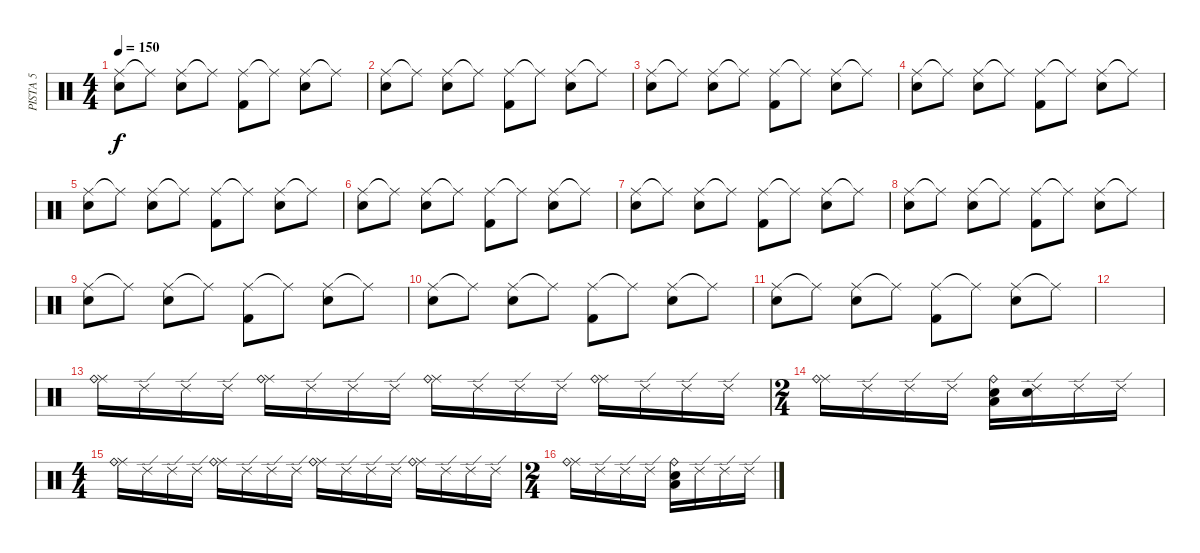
\track ("PISTA 5" "PISTA 5") {instrument percussion}
\staff {score}
\articulation defaults
\ts (4 4)
\tempo 150
\clef neutral
\ks c
("Ride (middle)" "Snare (hit)").8{dy f} "Ride (middle)"{t}.8 ("Ride (middle)" "Electric Snare (hit)").8 "Ride (middle)"{t}.8 ("Ride (middle)" "Kick (hit) 2").8 "Ride (middle)"{t}.8 ("Ride (middle)" "Electric Snare (hit)").8 "Ride (middle)"{t}.8 |
("Ride (middle)" "Snare (hit)").8 "Ride (middle)"{t}.8 ("Ride (middle)" "Electric Snare (hit)").8 "Ride (middle)"{t}.8 ("Ride (middle)" "Kick (hit) 2").8 "Ride (middle)"{t}.8 ("Ride (middle)" "Electric Snare (hit)").8 "Ride (middle)"{t}.8 |
("Ride (middle)" "Snare (hit)").8 "Ride (middle)"{t}.8 ("Ride (middle)" "Electric Snare (hit)").8 "Ride (middle)"{t}.8 ("Ride (middle)" "Kick (hit) 2").8 "Ride (middle)"{t}.8 ("Ride (middle)" "Electric Snare (hit)").8 "Ride (middle)"{t}.8 |
("Ride (middle)" "Snare (hit)").8 "Ride (middle)"{t}.8 ("Ride (middle)" "Electric Snare (hit)").8 "Ride (middle)"{t}.8 ("Ride (middle)" "Kick (hit) 2").8 "Ride (middle)"{t}.8 ("Ride (middle)" "Electric Snare (hit)").8 "Ride (middle)"{t}.8 |
("Ride (middle)" "Snare (hit)").8 "Ride (middle)"{t}.8 ("Ride (middle)" "Electric Snare (hit)").8 "Ride (middle)"{t}.8 ("Ride (middle)" "Kick (hit) 2").8 "Ride (middle)"{t}.8 ("Ride (middle)" "Electric Snare (hit)").8 "Ride (middle)"{t}.8 |
("Ride (middle)" "Snare (hit)").8 "Ride (middle)"{t}.8 ("Ride (middle)" "Electric Snare (hit)").8 "Ride (middle)"{t}.8 ("Ride (middle)" "Kick (hit) 2").8 "Ride (middle)"{t}.8 ("Ride (middle)" "Electric Snare (hit)").8 "Ride (middle)"{t}.8 |
("Ride (middle)" "Snare (hit)").8 "Ride (middle)"{t}.8 ("Ride (middle)" "Electric Snare (hit)").8 "Ride (middle)"{t}.8 ("Ride (middle)" "Kick (hit) 2").8 "Ride (middle)"{t}.8 ("Ride (middle)" "Electric Snare (hit)").8 "Ride (middle)"{t}.8 |
("Ride (middle)" "Snare (hit)").8 "Ride (middle)"{t}.8 ("Ride (middle)" "Electric Snare (hit)").8 "Ride (middle)"{t}.8 ("Ride (middle)" "Kick (hit) 2").8 "Ride (middle)"{t}.8 ("Ride (middle)" "Electric Snare (hit)").8 "Ride (middle)"{t}.8 |
("Ride (middle)" "Snare (hit)").8 "Ride (middle)"{t}.8 ("Ride (middle)" "Electric Snare (hit)").8 "Ride (middle)"{t}.8 ("Ride (middle)" "Kick (hit) 2").8 "Ride (middle)"{t}.8 ("Ride (middle)" "Electric Snare (hit)").8 "Ride (middle)"{t}.8 |
("Ride (middle)" "Snare (hit)").8 "Ride (middle)"{t}.8 ("Ride (middle)" "Electric Snare (hit)").8 "Ride (middle)"{t}.8 ("Ride (middle)" "Kick (hit) 2").8 "Ride (middle)"{t}.8 ("Ride (middle)" "Electric Snare (hit)").8 "Ride (middle)"{t}.8 |
("Ride (middle)" "Snare (hit)").8 "Ride (middle)"{t}.8 ("Ride (middle)" "Electric Snare (hit)").8 "Ride (middle)"{t}.8 ("Ride (middle)" "Kick (hit) 2").8 "Ride (middle)"{t}.8 ("Ride (middle)" "Electric Snare (hit)").8 "Ride (middle)"{t}.8 |
|
("Ride (middle)" "Ride (bell)").16 "Ride (edge) 2".16 "Ride (edge) 2".16 "Ride (edge) 2".16 ("Ride (middle)" "Ride (bell)").16 "Ride (edge) 2".16 "Ride (edge) 2".16 "Ride (edge) 2".16 ("Ride (middle)" "Ride (bell)").16 "Ride (edge) 2".16 "Ride (edge) 2".16 "Ride (edge) 2".16 ("Ride (middle)" "Ride (bell)").16 "Ride (edge) 2".16 "Ride (edge) 2".16 "Ride (edge) 2".16 |
\ts (2 4)
("Ride (middle)" "Ride (bell)").16 "Ride (edge) 2".16 "Ride (edge) 2".16 "Ride (edge) 2".16 ("Ride (bell)" "Low Floor Tom (hit)" "Snare (hit) 2").16 ("Ride (edge) 2" "Electric Snare (hit)").16 "Ride (edge) 2".16 "Ride (edge) 2".16 |
\ts (4 4)
("Ride (middle)" "Ride (bell)").16 "Ride (edge) 2".16 "Ride (edge) 2".16 "Ride (edge) 2".16 ("Ride (middle)" "Ride (bell)").16 "Ride (edge) 2".16 "Ride (edge) 2".16 "Ride (edge) 2".16 ("Ride (middle)" "Ride (bell)").16 "Ride (edge) 2".16 "Ride (edge) 2".16 "Ride (edge) 2".16 ("Ride (middle)" "Ride (bell)").16 "Ride (edge) 2".16 "Ride (edge) 2".16 "Ride (edge) 2".16 |
\ts (2 4)
("Ride (middle)" "Ride (bell)").16 "Ride (edge) 2".16 "Ride (edge) 2".16 "Ride (edge) 2".16 ("Ride (bell)" "Low Floor Tom (hit)" "Snare (hit) 2").16 "Ride (edge) 2".16 "Ride (edge) 2".16 "Ride (edge) 2".16
